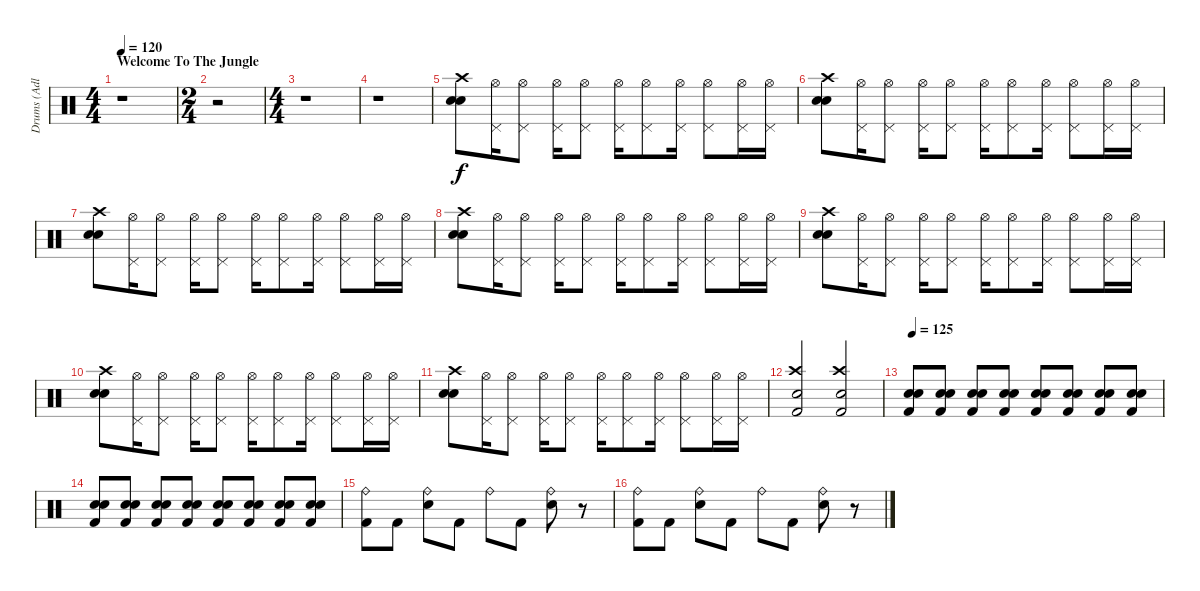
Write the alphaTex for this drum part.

\track ("Drums (Adler)" "Drums (Adl") {instrument percussion}
\staff {score}
\articulation defaults
\ts (4 4)
\section ("" "Welcome To The Jungle")
\tempo 120
\tempo 105
\tempo 120
\clef neutral
\ks c
r.1{dy f} |
\ts (2 4)
r.2 |
\ts (4 4)
r.1 |
r.1 |
("Electric Snare (hit)" "Crash high (hit)" "Snare (hit) 2").8 ("Pedal Hi-Hat (hit)" "Hi-Hat (open)").16 ("Pedal Hi-Hat (hit)" "Hi-Hat (open)").8 ("Pedal Hi-Hat (hit)" "Hi-Hat (open)").16 ("Pedal Hi-Hat (hit)" "Hi-Hat (open)").8 ("Pedal Hi-Hat (hit)" "Hi-Hat (open)").16 ("Pedal Hi-Hat (hit)" "Hi-Hat (open)").8 ("Pedal Hi-Hat (hit)" "Hi-Hat (open)").16 ("Pedal Hi-Hat (hit)" "Hi-Hat (open)").8 ("Pedal Hi-Hat (hit)" "Hi-Hat (open)").16 ("Pedal Hi-Hat (hit)" "Hi-Hat (open)").16 |
("Electric Snare (hit)" "Crash high (hit)" "Snare (hit) 2").8 ("Pedal Hi-Hat (hit)" "Hi-Hat (open)").16 ("Pedal Hi-Hat (hit)" "Hi-Hat (open)").8 ("Pedal Hi-Hat (hit)" "Hi-Hat (open)").16 ("Pedal Hi-Hat (hit)" "Hi-Hat (open)").8 ("Pedal Hi-Hat (hit)" "Hi-Hat (open)").16 ("Pedal Hi-Hat (hit)" "Hi-Hat (open)").8 ("Pedal Hi-Hat (hit)" "Hi-Hat (open)").16 ("Pedal Hi-Hat (hit)" "Hi-Hat (open)").8 ("Pedal Hi-Hat (hit)" "Hi-Hat (open)").16 ("Pedal Hi-Hat (hit)" "Hi-Hat (open)").16 |
("Electric Snare (hit)" "Crash high (hit)" "Snare (hit) 2").8 ("Pedal Hi-Hat (hit)" "Hi-Hat (open)").16 ("Pedal Hi-Hat (hit)" "Hi-Hat (open)").8 ("Pedal Hi-Hat (hit)" "Hi-Hat (open)").16 ("Pedal Hi-Hat (hit)" "Hi-Hat (open)").8 ("Pedal Hi-Hat (hit)" "Hi-Hat (open)").16 ("Pedal Hi-Hat (hit)" "Hi-Hat (open)").8 ("Pedal Hi-Hat (hit)" "Hi-Hat (open)").16 ("Pedal Hi-Hat (hit)" "Hi-Hat (open)").8 ("Pedal Hi-Hat (hit)" "Hi-Hat (open)").16 ("Pedal Hi-Hat (hit)" "Hi-Hat (open)").16 |
("Electric Snare (hit)" "Crash high (hit)" "Snare (hit) 2").8 ("Pedal Hi-Hat (hit)" "Hi-Hat (open)").16 ("Pedal Hi-Hat (hit)" "Hi-Hat (open)").8 ("Pedal Hi-Hat (hit)" "Hi-Hat (open)").16 ("Pedal Hi-Hat (hit)" "Hi-Hat (open)").8 ("Pedal Hi-Hat (hit)" "Hi-Hat (open)").16 ("Pedal Hi-Hat (hit)" "Hi-Hat (open)").8 ("Pedal Hi-Hat (hit)" "Hi-Hat (open)").16 ("Pedal Hi-Hat (hit)" "Hi-Hat (open)").8 ("Pedal Hi-Hat (hit)" "Hi-Hat (open)").16 ("Pedal Hi-Hat (hit)" "Hi-Hat (open)").16 |
("Electric Snare (hit)" "Crash high (hit)" "Snare (hit) 2").8 ("Pedal Hi-Hat (hit)" "Hi-Hat (open)").16 ("Pedal Hi-Hat (hit)" "Hi-Hat (open)").8 ("Pedal Hi-Hat (hit)" "Hi-Hat (open)").16 ("Pedal Hi-Hat (hit)" "Hi-Hat (open)").8 ("Pedal Hi-Hat (hit)" "Hi-Hat (open)").16 ("Pedal Hi-Hat (hit)" "Hi-Hat (open)").8 ("Pedal Hi-Hat (hit)" "Hi-Hat (open)").16 ("Pedal Hi-Hat (hit)" "Hi-Hat (open)").8 ("Pedal Hi-Hat (hit)" "Hi-Hat (open)").16 ("Pedal Hi-Hat (hit)" "Hi-Hat (open)").16 |
("Electric Snare (hit)" "Crash high (hit)" "Snare (hit) 2").8 ("Pedal Hi-Hat (hit)" "Hi-Hat (open)").16 ("Pedal Hi-Hat (hit)" "Hi-Hat (open)").8 ("Pedal Hi-Hat (hit)" "Hi-Hat (open)").16 ("Pedal Hi-Hat (hit)" "Hi-Hat (open)").8 ("Pedal Hi-Hat (hit)" "Hi-Hat (open)").16 ("Pedal Hi-Hat (hit)" "Hi-Hat (open)").8 ("Pedal Hi-Hat (hit)" "Hi-Hat (open)").16 ("Pedal Hi-Hat (hit)" "Hi-Hat (open)").8 ("Pedal Hi-Hat (hit)" "Hi-Hat (open)").16 ("Pedal Hi-Hat (hit)" "Hi-Hat (open)").16 |
("Electric Snare (hit)" "Crash high (hit)" "Snare (hit) 2").8 ("Pedal Hi-Hat (hit)" "Hi-Hat (open)").16 ("Pedal Hi-Hat (hit)" "Hi-Hat (open)").8 ("Pedal Hi-Hat (hit)" "Hi-Hat (open)").16 ("Pedal Hi-Hat (hit)" "Hi-Hat (open)").8 ("Pedal Hi-Hat (hit)" "Hi-Hat (open)").16 ("Pedal Hi-Hat (hit)" "Hi-Hat (open)").8 ("Pedal Hi-Hat (hit)" "Hi-Hat (open)").16 ("Pedal Hi-Hat (hit)" "Hi-Hat (open)").8 ("Pedal Hi-Hat (hit)" "Hi-Hat (open)").16 ("Pedal Hi-Hat (hit)" "Hi-Hat (open)").16 |
("Kick (hit) 2" "Electric Snare (hit)" "Crash high (hit)").2 ("Kick (hit) 2" "Electric Snare (hit)" "Crash high (hit)").2 |
\tempo 125
("Kick (hit) 2" "Electric Snare (hit)" "Snare (hit) 2").8 ("Kick (hit) 2" "Electric Snare (hit)" "Snare (hit) 2").8 ("Kick (hit) 2" "Electric Snare (hit)" "Snare (hit) 2").8 ("Kick (hit) 2" "Electric Snare (hit)" "Snare (hit) 2").8 ("Kick (hit) 2" "Electric Snare (hit)" "Snare (hit) 2").8 ("Kick (hit) 2" "Electric Snare (hit)" "Snare (hit) 2").8 ("Kick (hit) 2" "Electric Snare (hit)" "Snare (hit) 2").8 ("Kick (hit) 2" "Electric Snare (hit)" "Snare (hit) 2").8 |
("Kick (hit) 2" "Electric Snare (hit)" "Snare (hit) 2").8 ("Kick (hit) 2" "Electric Snare (hit)" "Snare (hit) 2").8 ("Kick (hit) 2" "Electric Snare (hit)" "Snare (hit) 2").8 ("Kick (hit) 2" "Electric Snare (hit)" "Snare (hit) 2").8 ("Kick (hit) 2" "Electric Snare (hit)" "Snare (hit) 2").8 ("Kick (hit) 2" "Electric Snare (hit)" "Snare (hit) 2").8 ("Kick (hit) 2" "Electric Snare (hit)" "Snare (hit) 2").8 ("Kick (hit) 2" "Electric Snare (hit)" "Snare (hit) 2").8 |
("Kick (hit) 2" "Ride (bell)").8 "Kick (hit) 2".8 ("Electric Snare (hit)" "Ride (bell)").8 "Kick (hit) 2".8 "Ride (bell)".8 "Kick (hit) 2".8 ("Electric Snare (hit)" "Ride (bell)").8 r.8 |
("Kick (hit) 2" "Ride (bell)").8 "Kick (hit) 2".8 ("Electric Snare (hit)" "Ride (bell)").8 "Kick (hit) 2".8 "Ride (bell)".8 "Kick (hit) 2".8 ("Electric Snare (hit)" "Ride (bell)").8 r.8
